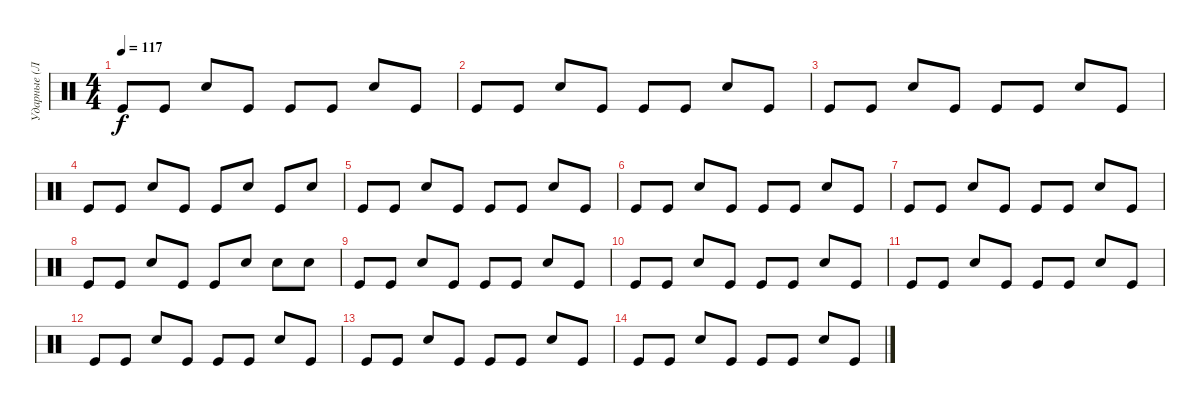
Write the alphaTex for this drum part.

\track ("Ударные (Летов)" "Ударные (Л") {instrument percussion}
\staff {score}
\articulation defaults
\ts (4 4)
\tempo 117
\clef neutral
\ks c "Kick (hit)".8{dy f} "Kick (hit)".8 "Snare (hit) 2".8 "Kick (hit)".8 "Kick (hit)".8 "Kick (hit)".8 "Snare (hit) 2".8 "Kick (hit)".8
|
"Kick (hit)".8 "Kick (hit)".8 "Snare (hit) 2".8 "Kick (hit)".8 "Kick (hit)".8 "Kick (hit)".8 "Snare (hit) 2".8 "Kick (hit)".8 |
"Kick (hit)".8 "Kick (hit)".8 "Snare (hit) 2".8 "Kick (hit)".8 "Kick (hit)".8 "Kick (hit)".8 "Snare (hit) 2".8 "Kick (hit)".8 |
"Kick (hit)".8 "Kick (hit)".8 "Snare (hit) 2".8 "Kick (hit)".8 "Kick (hit)".8 "Snare (hit) 2".8 "Kick (hit)".8 "Snare (hit) 2".8 |
"Kick (hit)".8 "Kick (hit)".8 "Snare (hit) 2".8 "Kick (hit)".8 "Kick (hit)".8 "Kick (hit)".8 "Snare (hit) 2".8 "Kick (hit)".8 |
"Kick (hit)".8 "Kick (hit)".8 "Snare (hit) 2".8 "Kick (hit)".8 "Kick (hit)".8 "Kick (hit)".8 "Snare (hit) 2".8 "Kick (hit)".8 |
"Kick (hit)".8 "Kick (hit)".8 "Snare (hit) 2".8 "Kick (hit)".8 "Kick (hit)".8 "Kick (hit)".8 "Snare (hit) 2".8 "Kick (hit)".8 |
"Kick (hit)".8 "Kick (hit)".8 "Snare (hit) 2".8 "Kick (hit)".8 "Kick (hit)".8 "Snare (hit) 2".8 "Snare (hit) 2".8 "Snare (hit) 2".8 |
"Kick (hit)".8 "Kick (hit)".8 "Snare (hit) 2".8 "Kick (hit)".8 "Kick (hit)".8 "Kick (hit)".8 "Snare (hit) 2".8 "Kick (hit)".8 |
"Kick (hit)".8 "Kick (hit)".8 "Snare (hit) 2".8 "Kick (hit)".8 "Kick (hit)".8 "Kick (hit)".8 "Snare (hit) 2".8 "Kick (hit)".8 |
"Kick (hit)".8 "Kick (hit)".8 "Snare (hit) 2".8 "Kick (hit)".8 "Kick (hit)".8 "Kick (hit)".8 "Snare (hit) 2".8 "Kick (hit)".8 |
"Kick (hit)".8 "Kick (hit)".8 "Snare (hit) 2".8 "Kick (hit)".8 "Kick (hit)".8 "Kick (hit)".8 "Snare (hit) 2".8 "Kick (hit)".8 |
"Kick (hit)".8 "Kick (hit)".8 "Snare (hit) 2".8 "Kick (hit)".8 "Kick (hit)".8 "Kick (hit)".8 "Snare (hit) 2".8 "Kick (hit)".8 |
"Kick (hit)".8 "Kick (hit)".8 "Snare (hit) 2".8 "Kick (hit)".8 "Kick (hit)".8 "Kick (hit)".8 "Snare (hit) 2".8 "Kick (hit)".8
